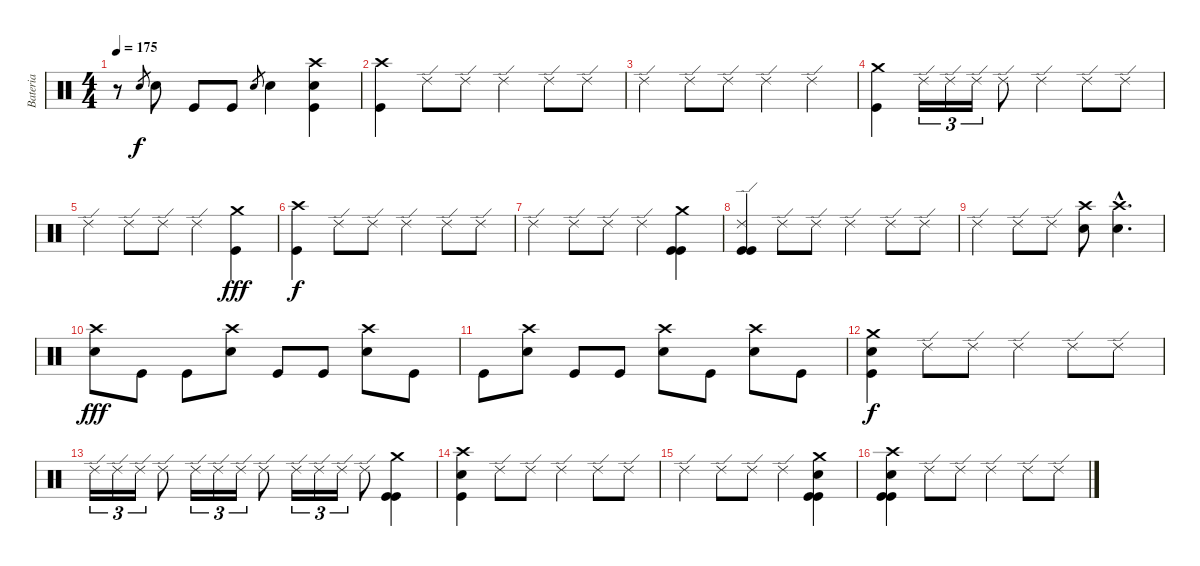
\track ("Bateria" "Bateria") {instrument percussion}
\staff {score}
\articulation defaults
\ts (4 4)
\tempo 175
\clef neutral
\ks c
r.8{dy f} "Electric Snare (hit)".8{gr} "Electric Snare (hit)".8 "Kick (hit)".8 "Kick (hit)".8 "Electric Snare (hit)".8{gr} "Electric Snare (hit)".4 ("Crash high (hit)" "Electric Snare (hit)" "Kick (hit)").4 |
("Crash high (hit)" "Kick (hit)").4 "Ride (edge) 2".8 "Ride (edge) 2".8 "Ride (edge) 2".4 "Ride (edge) 2".8 "Ride (edge) 2".8 |
"Ride (edge) 2".4 "Ride (edge) 2".8 "Ride (edge) 2".8 "Ride (edge) 2".4 "Ride (edge) 2".4 |
("Crash medium (hit)" "Kick (hit)").4 "Ride (edge) 2".16{tu (3 2)} "Ride (edge) 2".16{tu (3 2)} "Ride (edge) 2".16{tu (3 2)} "Ride (edge) 2".8 "Ride (edge) 2".4 "Ride (edge) 2".8 "Ride (edge) 2".8 |
"Ride (edge) 2".4 "Ride (edge) 2".8 "Ride (edge) 2".8 "Ride (edge) 2".4 ("Crash medium (hit)" "Kick (hit)").4{dy fff} |
("Crash high (hit)" "Kick (hit)").4{dy f} "Ride (edge) 2".8 "Ride (edge) 2".8 "Ride (edge) 2".4 "Ride (edge) 2".8 "Ride (edge) 2".8 |
"Ride (edge) 2".4 "Ride (edge) 2".8 "Ride (edge) 2".8 "Ride (edge) 2".4 ("Crash medium (hit)" "Kick (hit)" "Kick (hit)").4 |
("Ride (edge) 2" "Kick (hit)" "Kick (hit)").4 "Ride (edge) 2".8 "Ride (edge) 2".8 "Ride (edge) 2".4 "Ride (edge) 2".8 "Ride (edge) 2".8 |
"Ride (edge) 2".4 "Ride (edge) 2".8 "Ride (edge) 2".8 ("Crash high (hit)" "Electric Snare (hit)").8 ("Crash high (hit)"{hac} "Electric Snare (hit)"{hac}).4{d} |
("Crash high (hit)" "Electric Snare (hit)").8{dy fff} "Kick (hit)".8 "Kick (hit)".8 ("Crash high (hit)" "Electric Snare (hit)").8 "Kick (hit)".8 "Kick (hit)".8 ("Crash high (hit)" "Electric Snare (hit)").8 "Kick (hit)".8 |
"Kick (hit)".8 ("Crash high (hit)" "Electric Snare (hit)").8 "Kick (hit)".8 "Kick (hit)".8 ("Crash high (hit)" "Electric Snare (hit)").8 "Kick (hit)".8 ("Crash high (hit)" "Electric Snare (hit)").8 "Kick (hit)".8 |
("Crash medium (hit)" "Electric Snare (hit)" "Kick (hit)").4{dy f} "Ride (edge) 2".8 "Ride (edge) 2".8 "Ride (edge) 2".4 "Ride (edge) 2".8 "Ride (edge) 2".8 |
"Ride (edge) 2".16{tu (3 2)} "Ride (edge) 2".16{tu (3 2)} "Ride (edge) 2".16{tu (3 2)} "Ride (edge) 2".8 "Ride (edge) 2".16{tu (3 2)} "Ride (edge) 2".16{tu (3 2)} "Ride (edge) 2".16{tu (3 2)} "Ride (edge) 2".8 "Ride (edge) 2".16{tu (3 2)} "Ride (edge) 2".16{tu (3 2)} "Ride (edge) 2".16{tu (3 2)} "Ride (edge) 2".8 ("Crash medium (hit)" "Kick (hit)" "Kick (hit)").4 |
("Crash high (hit)" "Electric Snare (hit)" "Kick (hit)").4 "Ride (edge) 2".8 "Ride (edge) 2".8 "Ride (edge) 2".4 "Ride (edge) 2".8 "Ride (edge) 2".8 |
"Ride (edge) 2".4 "Ride (edge) 2".8 "Ride (edge) 2".8 "Ride (edge) 2".4 ("Crash medium (hit)" "Electric Snare (hit)" "Kick (hit)" "Kick (hit)").4 |
("Crash high (hit)" "Electric Snare (hit)" "Kick (hit)" "Kick (hit)").4 "Ride (edge) 2".8 "Ride (edge) 2".8 "Ride (edge) 2".4 "Ride (edge) 2".8 "Ride (edge) 2".8
